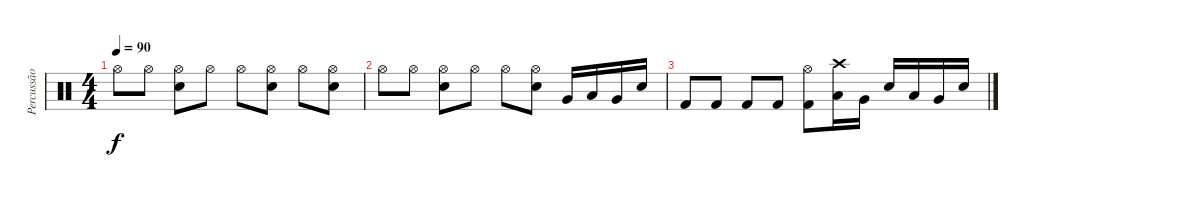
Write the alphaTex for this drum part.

\track ("Percussão" "Percussão") {instrument percussion}
\staff {score}
\articulation defaults
\ts (4 4)
\tempo 90
\clef neutral
\ks c "Hi-Hat (open)".8{dy f} "Hi-Hat (open)".8
("Electric Snare (hit)" "Hi-Hat (open)").8 "Hi-Hat (open)".8 "Hi-Hat (open)".8 ("Electric Snare (hit)" "Hi-Hat (open)").8 "Hi-Hat (open)".8 ("Electric Snare (hit)" "Hi-Hat (open)").8 |
"Hi-Hat (open)".8 "Hi-Hat (open)".8 ("Electric Snare (hit)" "Hi-Hat (open)").8 "Hi-Hat (open)".8 "Hi-Hat (open)".8 ("Electric Snare (hit)" "Hi-Hat (open)").8 "Very Low Tom (hit)".16 "Low Floor Tom (hit)".16 "Very Low Tom (hit)".16 "Electric Snare (hit)".16 |
"Kick (hit) 2".8 "Kick (hit) 2".8 "Kick (hit) 2".8 "Kick (hit) 2".8 ("Hi-Hat (open)" "Kick (hit) 2").8 ("Crash high (hit)" "Low Floor Tom (hit)").16 "Very Low Tom (hit)".16 "Electric Snare (hit)".16 "Low Floor Tom (hit)".16 "Very Low Tom (hit)".16 "Electric Snare (hit)".16
